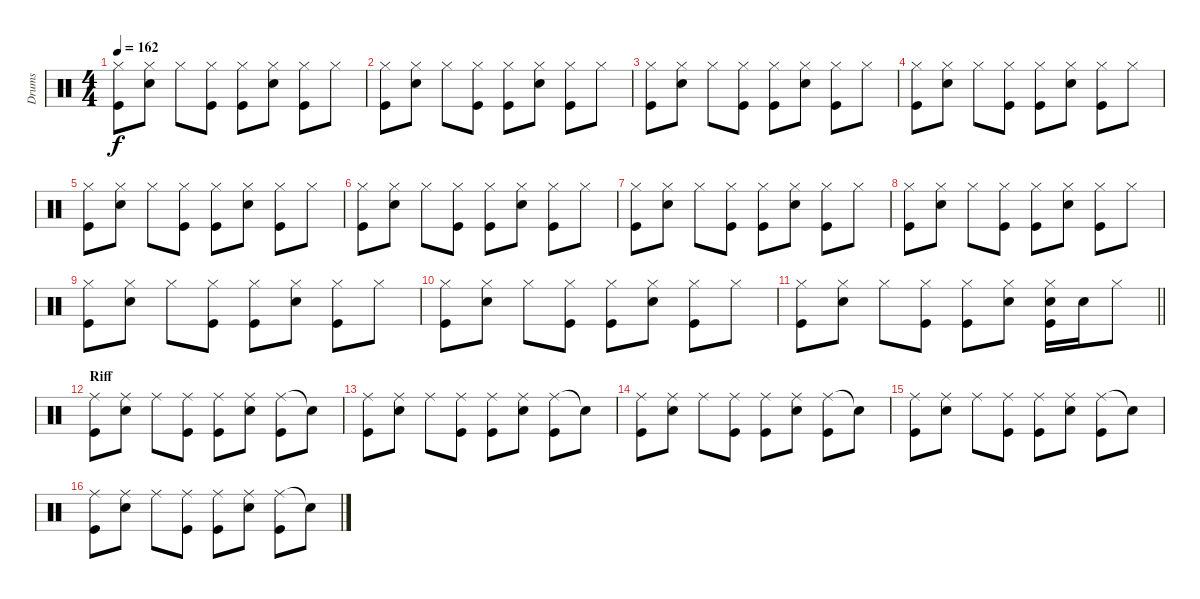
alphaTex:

\track ("Drums" "Drums") {instrument percussion}
\staff {score}
\articulation defaults
\ts (4 4)
\tempo 162
\clef neutral
\ks c
("Hi-Hat (closed)" "Kick (hit)").8{dy f} ("Hi-Hat (closed)" "Snare (hit) 2").8 "Hi-Hat (closed)".8 ("Hi-Hat (closed)" "Kick (hit)").8 ("Hi-Hat (closed)" "Kick (hit)").8 ("Hi-Hat (closed)" "Snare (hit) 2").8 ("Hi-Hat (closed)" "Kick (hit)").8 "Hi-Hat (closed)".8 |
("Hi-Hat (closed)" "Kick (hit)").8 ("Hi-Hat (closed)" "Snare (hit) 2").8 "Hi-Hat (closed)".8 ("Hi-Hat (closed)" "Kick (hit)").8 ("Hi-Hat (closed)" "Kick (hit)").8 ("Hi-Hat (closed)" "Snare (hit) 2").8 ("Hi-Hat (closed)" "Kick (hit)").8 "Hi-Hat (closed)".8 |
("Hi-Hat (closed)" "Kick (hit)").8 ("Hi-Hat (closed)" "Snare (hit) 2").8 "Hi-Hat (closed)".8 ("Hi-Hat (closed)" "Kick (hit)").8 ("Hi-Hat (closed)" "Kick (hit)").8 ("Hi-Hat (closed)" "Snare (hit) 2").8 ("Hi-Hat (closed)" "Kick (hit)").8 "Hi-Hat (closed)".8 |
("Hi-Hat (closed)" "Kick (hit)").8 ("Hi-Hat (closed)" "Snare (hit) 2").8 "Hi-Hat (closed)".8 ("Hi-Hat (closed)" "Kick (hit)").8 ("Hi-Hat (closed)" "Kick (hit)").8 ("Hi-Hat (closed)" "Snare (hit) 2").8 ("Hi-Hat (closed)" "Kick (hit)").8 "Hi-Hat (closed)".8 |
("Hi-Hat (closed)" "Kick (hit)").8 ("Hi-Hat (closed)" "Snare (hit) 2").8 "Hi-Hat (closed)".8 ("Hi-Hat (closed)" "Kick (hit)").8 ("Hi-Hat (closed)" "Kick (hit)").8 ("Hi-Hat (closed)" "Snare (hit) 2").8 ("Hi-Hat (closed)" "Kick (hit)").8 "Hi-Hat (closed)".8 |
("Hi-Hat (closed)" "Kick (hit)").8 ("Hi-Hat (closed)" "Snare (hit) 2").8 "Hi-Hat (closed)".8 ("Hi-Hat (closed)" "Kick (hit)").8 ("Hi-Hat (closed)" "Kick (hit)").8 ("Hi-Hat (closed)" "Snare (hit) 2").8 ("Hi-Hat (closed)" "Kick (hit)").8 "Hi-Hat (closed)".8 |
("Hi-Hat (closed)" "Kick (hit)").8 ("Hi-Hat (closed)" "Snare (hit) 2").8 "Hi-Hat (closed)".8 ("Hi-Hat (closed)" "Kick (hit)").8 ("Hi-Hat (closed)" "Kick (hit)").8 ("Hi-Hat (closed)" "Snare (hit) 2").8 ("Hi-Hat (closed)" "Kick (hit)").8 "Hi-Hat (closed)".8 |
("Hi-Hat (closed)" "Kick (hit)").8 ("Hi-Hat (closed)" "Snare (hit) 2").8 "Hi-Hat (closed)".8 ("Hi-Hat (closed)" "Kick (hit)").8 ("Hi-Hat (closed)" "Kick (hit)").8 ("Hi-Hat (closed)" "Snare (hit) 2").8 ("Hi-Hat (closed)" "Kick (hit)").8 "Hi-Hat (closed)".8 |
("Hi-Hat (closed)" "Kick (hit)").8 ("Hi-Hat (closed)" "Snare (hit) 2").8 "Hi-Hat (closed)".8 ("Hi-Hat (closed)" "Kick (hit)").8 ("Hi-Hat (closed)" "Kick (hit)").8 ("Hi-Hat (closed)" "Snare (hit) 2").8 ("Hi-Hat (closed)" "Kick (hit)").8 "Hi-Hat (closed)".8 |
("Hi-Hat (closed)" "Kick (hit)").8 ("Hi-Hat (closed)" "Snare (hit) 2").8 "Hi-Hat (closed)".8 ("Hi-Hat (closed)" "Kick (hit)").8 ("Hi-Hat (closed)" "Kick (hit)").8 ("Hi-Hat (closed)" "Snare (hit) 2").8 ("Hi-Hat (closed)" "Kick (hit)").8 "Hi-Hat (closed)".8 |
\barLineRight lightlight
("Hi-Hat (closed)" "Kick (hit)").8 ("Hi-Hat (closed)" "Snare (hit) 2").8 "Hi-Hat (closed)".8 ("Hi-Hat (closed)" "Kick (hit)").8 ("Hi-Hat (closed)" "Kick (hit)").8 ("Hi-Hat (closed)" "Snare (hit) 2").8 ("Hi-Hat (closed)" "Snare (hit) 2" "Kick (hit)").16 "Snare (hit) 2".16 "Hi-Hat (closed)".8 |
\section ("" "Riff")
("Ride (middle)" "Kick (hit)").8 ("Ride (middle)" "Snare (hit) 2").8 "Ride (middle)".8 ("Ride (middle)" "Kick (hit)").8 ("Ride (middle)" "Kick (hit)").8 ("Ride (middle)" "Snare (hit) 2").8 ("Ride (middle)" "Kick (hit)").8 "Snare (hit)"{t}.8 |
("Ride (middle)" "Kick (hit)").8 ("Ride (middle)" "Snare (hit) 2").8 "Ride (middle)".8 ("Ride (middle)" "Kick (hit)").8 ("Ride (middle)" "Kick (hit)").8 ("Ride (middle)" "Snare (hit) 2").8 ("Ride (middle)" "Kick (hit)").8 "Snare (hit)"{t}.8 |
("Ride (middle)" "Kick (hit)").8 ("Ride (middle)" "Snare (hit) 2").8 "Ride (middle)".8 ("Ride (middle)" "Kick (hit)").8 ("Ride (middle)" "Kick (hit)").8 ("Ride (middle)" "Snare (hit) 2").8 ("Ride (middle)" "Kick (hit)").8 "Snare (hit)"{t}.8 |
("Ride (middle)" "Kick (hit)").8 ("Ride (middle)" "Snare (hit) 2").8 "Ride (middle)".8 ("Ride (middle)" "Kick (hit)").8 ("Ride (middle)" "Kick (hit)").8 ("Ride (middle)" "Snare (hit) 2").8 ("Ride (middle)" "Kick (hit)").8 "Snare (hit)"{t}.8 |
("Ride (middle)" "Kick (hit)").8 ("Ride (middle)" "Snare (hit) 2").8 "Ride (middle)".8 ("Ride (middle)" "Kick (hit)").8 ("Ride (middle)" "Kick (hit)").8 ("Ride (middle)" "Snare (hit) 2").8 ("Ride (middle)" "Kick (hit)").8 "Snare (hit)"{t}.8
